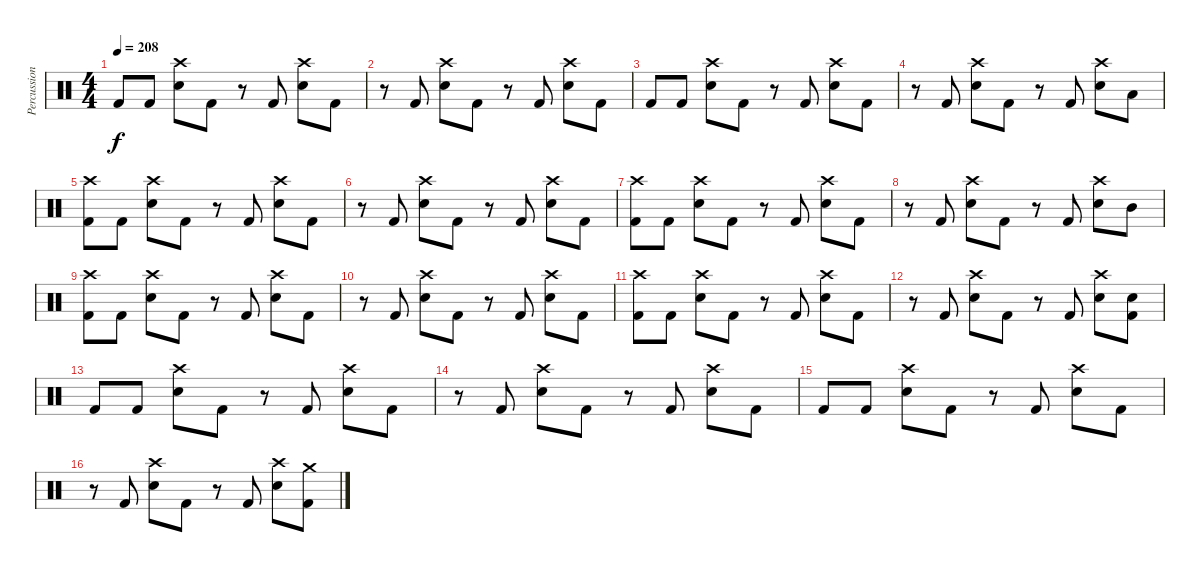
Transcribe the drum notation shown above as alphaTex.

\track ("Percussion" "Percussion") {instrument percussion}
\staff {score}
\articulation defaults
\ts (4 4)
\tempo 208
\clef neutral
\ks c "Kick (hit) 2".8{dy f} "Kick (hit) 2".8
("Crash high (hit)" "Electric Snare (hit)").8 "Kick (hit) 2".8 r.8 "Kick (hit) 2".8 ("Crash high (hit)" "Electric Snare (hit)").8 "Kick (hit) 2".8 |
r.8 "Kick (hit) 2".8 ("Crash high (hit)" "Electric Snare (hit)").8 "Kick (hit) 2".8 r.8 "Kick (hit) 2".8 ("Crash high (hit)" "Electric Snare (hit)").8 "Kick (hit) 2".8 |
"Kick (hit) 2".8 "Kick (hit) 2".8 ("Crash high (hit)" "Electric Snare (hit)").8 "Kick (hit) 2".8 r.8 "Kick (hit) 2".8 ("Crash high (hit)" "Electric Snare (hit)").8 "Kick (hit) 2".8 |
r.8 "Kick (hit) 2".8 ("Crash high (hit)" "Electric Snare (hit)").8 "Kick (hit) 2".8 r.8 "Kick (hit) 2".8 ("Crash high (hit)" "Electric Snare (hit)").8 "Low Tom (hit)".8 |
("Crash high (hit)" "Kick (hit) 2").8 "Kick (hit) 2".8 ("Crash high (hit)" "Electric Snare (hit)").8 "Kick (hit) 2".8 r.8 "Kick (hit) 2".8 ("Crash high (hit)" "Electric Snare (hit)").8 "Kick (hit) 2".8 |
r.8 "Kick (hit) 2".8 ("Crash high (hit)" "Electric Snare (hit)").8 "Kick (hit) 2".8 r.8 "Kick (hit) 2".8 ("Crash high (hit)" "Electric Snare (hit)").8 "Kick (hit) 2".8 |
("Crash high (hit)" "Kick (hit) 2").8 "Kick (hit) 2".8 ("Crash high (hit)" "Electric Snare (hit)").8 "Kick (hit) 2".8 r.8 "Kick (hit) 2".8 ("Crash high (hit)" "Electric Snare (hit)").8 "Kick (hit) 2".8 |
r.8 "Kick (hit) 2".8 ("Crash high (hit)" "Electric Snare (hit)").8 "Kick (hit) 2".8 r.8 "Kick (hit) 2".8 ("Crash high (hit)" "Electric Snare (hit)").8 "Mid Tom (hit)".8 |
("Crash high (hit)" "Kick (hit) 2").8 "Kick (hit) 2".8 ("Crash high (hit)" "Electric Snare (hit)").8 "Kick (hit) 2".8 r.8 "Kick (hit) 2".8 ("Crash high (hit)" "Electric Snare (hit)").8 "Kick (hit) 2".8 |
r.8 "Kick (hit) 2".8 ("Crash high (hit)" "Electric Snare (hit)").8 "Kick (hit) 2".8 r.8 "Kick (hit) 2".8 ("Crash high (hit)" "Electric Snare (hit)").8 "Kick (hit) 2".8 |
("Crash high (hit)" "Kick (hit) 2").8 "Kick (hit) 2".8 ("Crash high (hit)" "Electric Snare (hit)").8 "Kick (hit) 2".8 r.8 "Kick (hit) 2".8 ("Crash high (hit)" "Electric Snare (hit)").8 "Kick (hit) 2".8 |
r.8 "Kick (hit) 2".8 ("Crash high (hit)" "Electric Snare (hit)").8 "Kick (hit) 2".8 r.8 "Kick (hit) 2".8 ("Crash high (hit)" "Electric Snare (hit)").8 ("Electric Snare (hit)" "Kick (hit) 2").8 |
"Kick (hit) 2".8 "Kick (hit) 2".8 ("Crash high (hit)" "Electric Snare (hit)").8 "Kick (hit) 2".8 r.8 "Kick (hit) 2".8 ("Crash high (hit)" "Electric Snare (hit)").8 "Kick (hit) 2".8 |
r.8 "Kick (hit) 2".8 ("Crash high (hit)" "Electric Snare (hit)").8 "Kick (hit) 2".8 r.8 "Kick (hit) 2".8 ("Crash high (hit)" "Electric Snare (hit)").8 "Kick (hit) 2".8 |
"Kick (hit) 2".8 "Kick (hit) 2".8 ("Crash high (hit)" "Electric Snare (hit)").8 "Kick (hit) 2".8 r.8 "Kick (hit) 2".8 ("Crash high (hit)" "Electric Snare (hit)").8 "Kick (hit) 2".8 |
r.8 "Kick (hit) 2".8 ("Crash high (hit)" "Electric Snare (hit)").8 "Kick (hit) 2".8 r.8 "Kick (hit) 2".8 ("Crash high (hit)" "Electric Snare (hit)").8 ("Crash medium (hit)" "Kick (hit) 2").8
